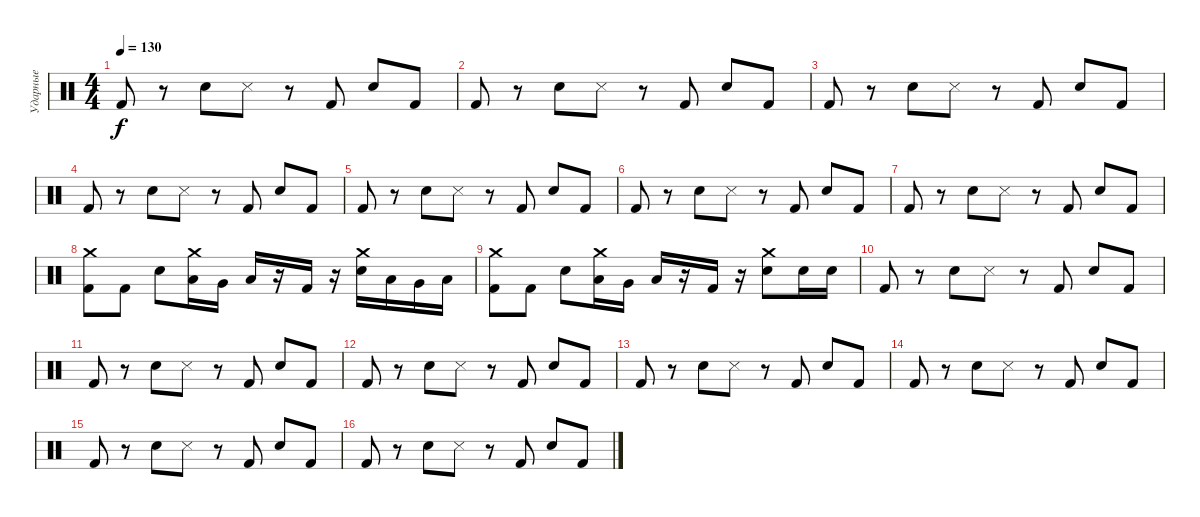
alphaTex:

\track ("Ударные" "Ударные") {instrument percussion}
\staff {score}
\articulation defaults
\ts (4 4)
\tempo 130
\clef neutral
\ks c "Kick (hit) 2".8{dy f}
r.8 "Electric Snare (hit)".8 "Snare (side stick) 3".8 r.8 "Kick (hit) 2".8 "Electric Snare (hit)".8 "Kick (hit) 2".8 |
"Kick (hit) 2".8 r.8 "Electric Snare (hit)".8 "Snare (side stick) 3".8 r.8 "Kick (hit) 2".8 "Electric Snare (hit)".8 "Kick (hit) 2".8 |
"Kick (hit) 2".8 r.8 "Electric Snare (hit)".8 "Snare (side stick) 3".8 r.8 "Kick (hit) 2".8 "Electric Snare (hit)".8 "Kick (hit) 2".8 |
"Kick (hit) 2".8 r.8 "Electric Snare (hit)".8 "Snare (side stick) 3".8 r.8 "Kick (hit) 2".8 "Electric Snare (hit)".8 "Kick (hit) 2".8 |
"Kick (hit) 2".8 r.8 "Electric Snare (hit)".8 "Snare (side stick) 3".8 r.8 "Kick (hit) 2".8 "Electric Snare (hit)".8 "Kick (hit) 2".8 |
"Kick (hit) 2".8 r.8 "Electric Snare (hit)".8 "Snare (side stick) 3".8 r.8 "Kick (hit) 2".8 "Electric Snare (hit)".8 "Kick (hit) 2".8 |
"Kick (hit) 2".8 r.8 "Electric Snare (hit)".8 "Snare (side stick) 3".8 r.8 "Kick (hit) 2".8 "Electric Snare (hit)".8 "Kick (hit) 2".8 |
("Kick (hit) 2" "Crash medium (hit)").8 "Kick (hit) 2".8 "Electric Snare (hit)".8 ("Low Tom (hit)" "Crash medium (hit)").16 "Very Low Tom (hit)".16 "Low Floor Tom (hit)".16 r.16 "Kick (hit) 2".16 r.16 ("Electric Snare (hit)" "Crash medium (hit)").16 "Low Tom (hit)".16 "Very Low Tom (hit)".16 "Low Floor Tom (hit)".16 |
("Kick (hit) 2" "Crash medium (hit)").8 "Kick (hit) 2".8 "Electric Snare (hit)".8 ("Low Tom (hit)" "Crash medium (hit)").16 "Very Low Tom (hit)".16 "Low Floor Tom (hit)".16 r.16 "Kick (hit) 2".16 r.16 ("Crash medium (hit)" "Electric Snare (hit)").8 "Electric Snare (hit)".16 "Electric Snare (hit)".16 |
"Kick (hit) 2".8 r.8 "Electric Snare (hit)".8 "Snare (side stick) 3".8 r.8 "Kick (hit) 2".8 "Electric Snare (hit)".8 "Kick (hit) 2".8 |
"Kick (hit) 2".8 r.8 "Electric Snare (hit)".8 "Snare (side stick) 3".8 r.8 "Kick (hit) 2".8 "Electric Snare (hit)".8 "Kick (hit) 2".8 |
"Kick (hit) 2".8 r.8 "Electric Snare (hit)".8 "Snare (side stick) 3".8 r.8 "Kick (hit) 2".8 "Electric Snare (hit)".8 "Kick (hit) 2".8 |
"Kick (hit) 2".8 r.8 "Electric Snare (hit)".8 "Snare (side stick) 3".8 r.8 "Kick (hit) 2".8 "Electric Snare (hit)".8 "Kick (hit) 2".8 |
"Kick (hit) 2".8 r.8 "Electric Snare (hit)".8 "Snare (side stick) 3".8 r.8 "Kick (hit) 2".8 "Electric Snare (hit)".8 "Kick (hit) 2".8 |
"Kick (hit) 2".8 r.8 "Electric Snare (hit)".8 "Snare (side stick) 3".8 r.8 "Kick (hit) 2".8 "Electric Snare (hit)".8 "Kick (hit) 2".8 |
"Kick (hit) 2".8 r.8 "Electric Snare (hit)".8 "Snare (side stick) 3".8 r.8 "Kick (hit) 2".8 "Electric Snare (hit)".8 "Kick (hit) 2".8
